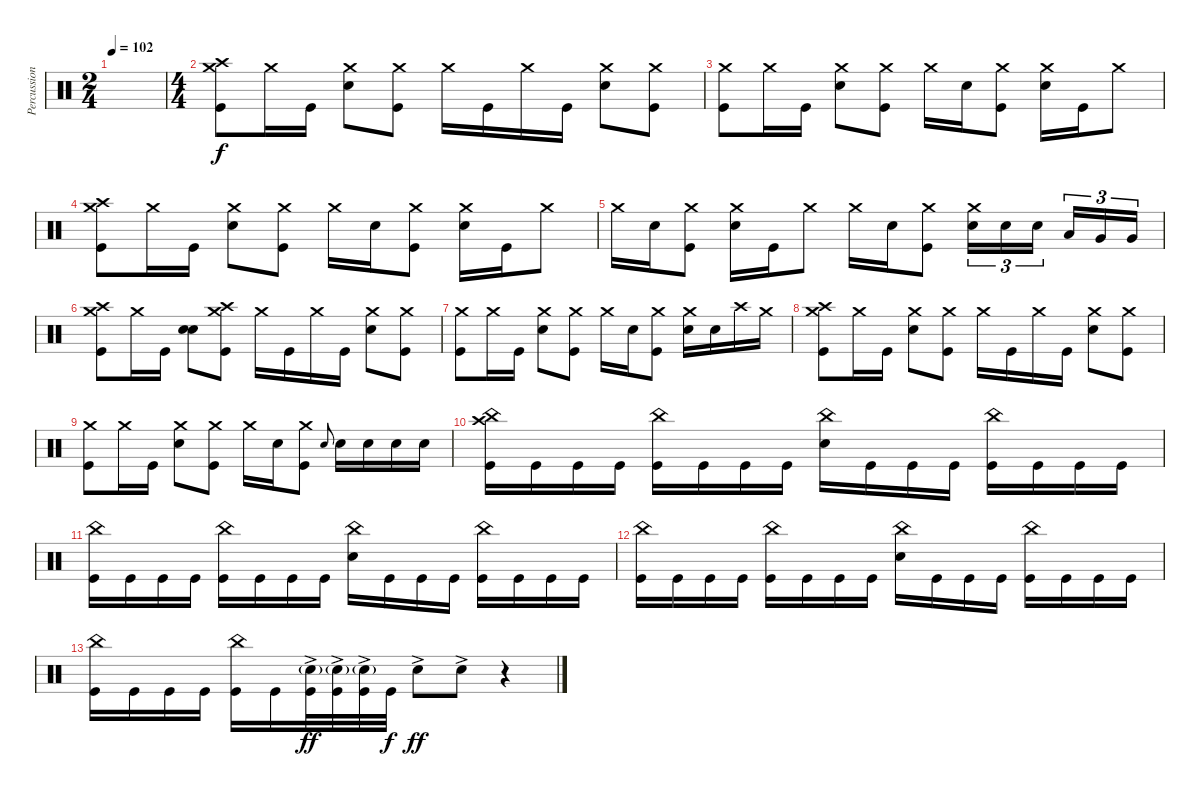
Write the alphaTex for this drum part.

\track ("Percussion" "Percussion") {instrument percussion}
\staff {score}
\articulation defaults
\ts (2 4)
\tempo 102
\clef neutral
\ks c
|
\ts (4 4)
("Crash high (hit)" "Crash medium (hit)" "Kick (hit)").8 "Crash medium (hit)".16 "Kick (hit)".16 ("Crash medium (hit)" "Snare (hit) 2").8 ("Crash medium (hit)" "Kick (hit)").8 "Crash medium (hit)".16 "Kick (hit)".16 "Crash medium (hit)".16 "Kick (hit)".16 ("Crash medium (hit)" "Snare (hit) 2").8 ("Crash medium (hit)" "Kick (hit)").8 |
("Crash medium (hit)" "Kick (hit)").8 "Crash medium (hit)".16 "Kick (hit)".16 ("Crash medium (hit)" "Snare (hit) 2").8 ("Crash medium (hit)" "Kick (hit)").8 "Crash medium (hit)".16 "Snare (hit) 2".16 ("Crash medium (hit)" "Kick (hit)").8 ("Crash medium (hit)" "Snare (hit) 2").16 "Kick (hit)".16 "Crash medium (hit)".8 |
("Crash medium (hit)" "Crash high (hit)" "Kick (hit)").8 "Crash medium (hit)".16 "Kick (hit)".16 ("Crash medium (hit)" "Snare (hit) 2").8 ("Crash medium (hit)" "Kick (hit)").8 "Crash medium (hit)".16 "Snare (hit) 2".16 ("Crash medium (hit)" "Kick (hit)").8 ("Crash medium (hit)" "Snare (hit) 2").16 "Kick (hit)".16 "Crash medium (hit)".8 |
"Crash medium (hit)".16 "Snare (hit) 2".16 ("Crash medium (hit)" "Kick (hit)").8 ("Crash medium (hit)" "Snare (hit) 2").16 "Kick (hit)".16 "Crash medium (hit)".8 "Crash medium (hit)".16 "Snare (hit) 2".16 ("Crash medium (hit)" "Kick (hit)").8 ("Crash medium (hit)" "Snare (hit) 2").16{tu (3 2)} "Snare (hit) 2".16{tu (3 2)} "Snare (hit) 2".16{tu (3 2) beam splitsecondary} "Low Tom (hit)".16{tu (3 2)} "Very Low Tom (hit)".16{tu (3 2)} "Very Low Tom (hit)".16{tu (3 2)} |
("Crash high (hit)" "Crash medium (hit)" "Kick (hit)").8 "Crash medium (hit)".16 "Kick (hit)".16 ("Snare (hit) 2" "Snare (hit) 2").8 ("Crash medium (hit)" "Crash high (hit)" "Kick (hit)").8 "Crash medium (hit)".16 "Kick (hit)".16 "Crash medium (hit)".16 "Kick (hit)".16 ("Crash medium (hit)" "Snare (hit) 2").8 ("Crash medium (hit)" "Kick (hit)").8 |
("Crash medium (hit)" "Kick (hit)").8 "Crash medium (hit)".16 "Kick (hit)".16 ("Crash medium (hit)" "Snare (hit) 2").8 ("Crash medium (hit)" "Kick (hit)").8 "Crash medium (hit)".16 "Snare (hit) 2".16 ("Crash medium (hit)" "Kick (hit)").8 ("Crash medium (hit)" "Snare (hit) 2").16 "Snare (hit) 2".16 "Crash high (hit)".16 "Crash medium (hit)".16 |
("Crash high (hit)" "Crash medium (hit)" "Kick (hit)").8 "Crash medium (hit)".16 "Kick (hit)".16 ("Crash medium (hit)" "Snare (hit) 2").8 ("Crash medium (hit)" "Kick (hit)").8 "Crash medium (hit)".16 "Kick (hit)".16 "Crash medium (hit)".16 "Kick (hit)".16 ("Crash medium (hit)" "Snare (hit) 2").8 ("Crash medium (hit)" "Kick (hit)").8 |
("Crash medium (hit)" "Kick (hit)").8 "Crash medium (hit)".16 "Kick (hit)".16 ("Crash medium (hit)" "Snare (hit) 2").8 ("Crash medium (hit)" "Kick (hit)").8 "Crash medium (hit)".16 "Snare (hit) 2".16 ("Crash medium (hit)" "Kick (hit)").8 "Snare (hit) 2".8{gr onbeat} "Snare (hit) 2".16 "Snare (hit) 2".16 "Snare (hit) 2".16 "Snare (hit) 2".16 |
("Crash high (hit)" "China (hit)" "Kick (hit)").16 "Kick (hit)".16 "Kick (hit)".16 "Kick (hit)".16 ("China (hit)" "Kick (hit)").16 "Kick (hit)".16 "Kick (hit)".16 "Kick (hit)".16 ("China (hit)" "Snare (hit) 2").16 "Kick (hit)".16 "Kick (hit)".16 "Kick (hit)".16 ("China (hit)" "Kick (hit)").16 "Kick (hit)".16 "Kick (hit)".16 "Kick (hit)".16 |
("China (hit)" "Kick (hit)").16 "Kick (hit)".16 "Kick (hit)".16 "Kick (hit)".16 ("China (hit)" "Kick (hit)").16 "Kick (hit)".16 "Kick (hit)".16 "Kick (hit)".16 ("China (hit)" "Snare (hit) 2").16 "Kick (hit)".16 "Kick (hit)".16 "Kick (hit)".16 ("China (hit)" "Kick (hit)").16 "Kick (hit)".16 "Kick (hit)".16 "Kick (hit)".16 |
("China (hit)" "Kick (hit)").16 "Kick (hit)".16 "Kick (hit)".16 "Kick (hit)".16 ("China (hit)" "Kick (hit)").16 "Kick (hit)".16 "Kick (hit)".16 "Kick (hit)".16 ("China (hit)" "Snare (hit) 2").16 "Kick (hit)".16 "Kick (hit)".16 "Kick (hit)".16 ("China (hit)" "Kick (hit)").16 "Kick (hit)".16 "Kick (hit)".16 "Kick (hit)".16 |
("China (hit)" "Kick (hit)").16 "Kick (hit)".16 "Kick (hit)".16 "Kick (hit)".16 ("China (hit)" "Kick (hit)").16 "Kick (hit)".16 ("Snare (hit) 2"{g} "Kick (hit)"{ac}).32{dy ff} ("Snare (hit) 2"{g} "Kick (hit)"{ac}).32 ("Snare (hit) 2"{g} "Kick (hit)"{ac}).32 "Kick (hit)".32{dy f} "Snare (hit) 2"{ac}.8{dy ff} "Snare (hit) 2"{ac}.8 r.4
